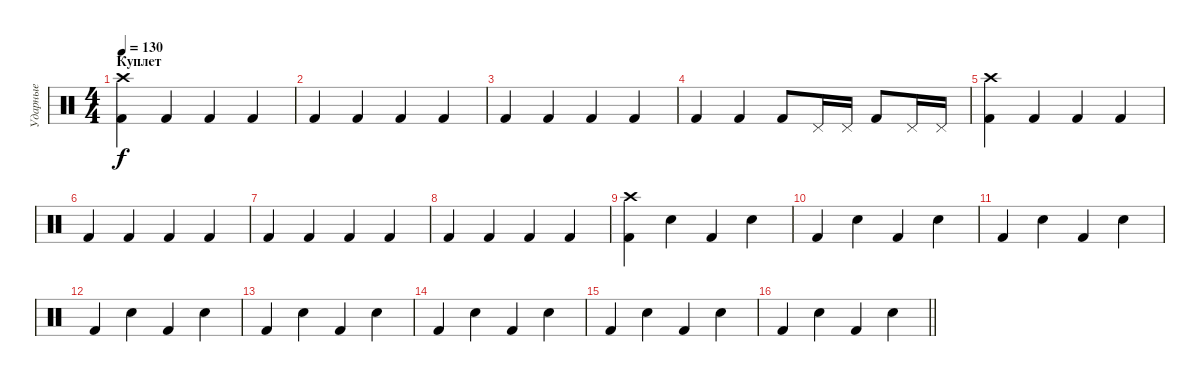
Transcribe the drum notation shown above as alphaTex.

\track ("Ударные" "Ударные") {instrument percussion}
\staff {score}
\articulation defaults
\ts (4 4)
\section ("" "Куплет")
\tempo 130
\clef neutral
\ks c
("Kick (hit) 2" "Crash high (hit)").4{dy f} "Kick (hit) 2".4 "Kick (hit) 2".4 "Kick (hit) 2".4 |
"Kick (hit) 2".4 "Kick (hit) 2".4 "Kick (hit) 2".4 "Kick (hit) 2".4 |
"Kick (hit) 2".4 "Kick (hit) 2".4 "Kick (hit) 2".4 "Kick (hit) 2".4 |
"Kick (hit) 2".4 "Kick (hit) 2".4 "Kick (hit) 2".8 "Pedal Hi-Hat (hit)".16 "Pedal Hi-Hat (hit)".16 "Kick (hit) 2".8 "Pedal Hi-Hat (hit)".16 "Pedal Hi-Hat (hit)".16 |
("Kick (hit) 2" "Crash high (hit)").4 "Kick (hit) 2".4 "Kick (hit) 2".4 "Kick (hit) 2".4 |
"Kick (hit) 2".4 "Kick (hit) 2".4 "Kick (hit) 2".4 "Kick (hit) 2".4 |
"Kick (hit) 2".4 "Kick (hit) 2".4 "Kick (hit) 2".4 "Kick (hit) 2".4 |
"Kick (hit) 2".4 "Kick (hit) 2".4 "Kick (hit) 2".4 "Kick (hit) 2".4 |
("Kick (hit) 2" "Crash high (hit)").4 "Snare (hit) 2".4 "Kick (hit) 2".4 "Snare (hit) 2".4 |
"Kick (hit) 2".4 "Snare (hit) 2".4 "Kick (hit) 2".4 "Snare (hit) 2".4 |
"Kick (hit) 2".4 "Snare (hit) 2".4 "Kick (hit) 2".4 "Snare (hit) 2".4 |
"Kick (hit) 2".4 "Snare (hit) 2".4 "Kick (hit) 2".4 "Snare (hit) 2".4 |
"Kick (hit) 2".4 "Snare (hit) 2".4 "Kick (hit) 2".4 "Snare (hit) 2".4 |
"Kick (hit) 2".4 "Snare (hit) 2".4 "Kick (hit) 2".4 "Snare (hit) 2".4 |
"Kick (hit) 2".4 "Snare (hit) 2".4 "Kick (hit) 2".4 "Snare (hit) 2".4 |
\barLineRight lightlight "Kick (hit) 2".4 "Snare (hit) 2".4 "Kick (hit) 2".4 "Snare (hit) 2".4
